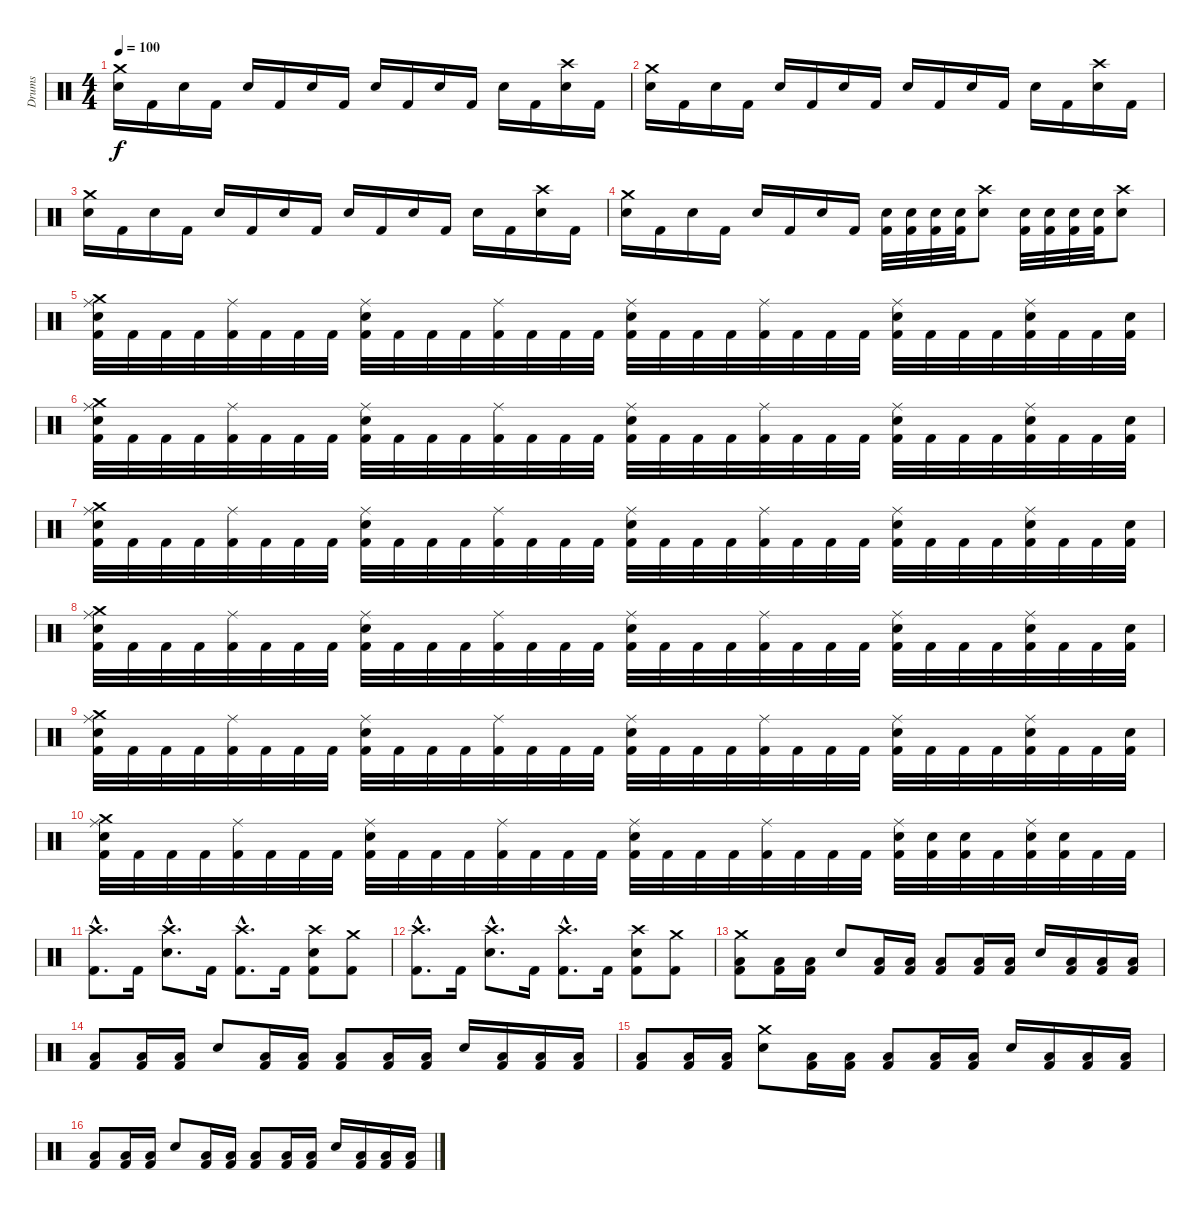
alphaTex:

\track ("Drums" "Drums") {instrument percussion}
\staff {score}
\articulation defaults
\ts (4 4)
\tempo 100
\clef neutral
\ks c
("Crash medium (hit)" "Electric Snare (hit)").16{dy f} "Kick (hit) 2".16 "Electric Snare (hit)".16 "Kick (hit) 2".16 "Electric Snare (hit)".16 "Kick (hit) 2".16 "Electric Snare (hit)".16 "Kick (hit) 2".16 "Electric Snare (hit)".16 "Kick (hit) 2".16 "Electric Snare (hit)".16 "Kick (hit) 2".16 "Electric Snare (hit)".16 "Kick (hit) 2".16 ("Crash high (hit)" "Electric Snare (hit)").16 "Kick (hit) 2".16 |
("Crash medium (hit)" "Electric Snare (hit)").16 "Kick (hit) 2".16 "Electric Snare (hit)".16 "Kick (hit) 2".16 "Electric Snare (hit)".16 "Kick (hit) 2".16 "Electric Snare (hit)".16 "Kick (hit) 2".16 "Electric Snare (hit)".16 "Kick (hit) 2".16 "Electric Snare (hit)".16 "Kick (hit) 2".16 "Electric Snare (hit)".16 "Kick (hit) 2".16 ("Crash high (hit)" "Electric Snare (hit)").16 "Kick (hit) 2".16 |
("Crash medium (hit)" "Electric Snare (hit)").16 "Kick (hit) 2".16 "Electric Snare (hit)".16 "Kick (hit) 2".16 "Electric Snare (hit)".16 "Kick (hit) 2".16 "Electric Snare (hit)".16 "Kick (hit) 2".16 "Electric Snare (hit)".16 "Kick (hit) 2".16 "Electric Snare (hit)".16 "Kick (hit) 2".16 "Electric Snare (hit)".16 "Kick (hit) 2".16 ("Crash high (hit)" "Electric Snare (hit)").16 "Kick (hit) 2".16 |
("Crash medium (hit)" "Electric Snare (hit)").16 "Kick (hit) 2".16 "Electric Snare (hit)".16 "Kick (hit) 2".16 "Electric Snare (hit)".16 "Kick (hit) 2".16 "Electric Snare (hit)".16 "Kick (hit) 2".16 ("Electric Snare (hit)" "Kick (hit) 2").32 ("Electric Snare (hit)" "Kick (hit) 2").32 ("Electric Snare (hit)" "Kick (hit) 2").32 ("Electric Snare (hit)" "Kick (hit) 2").32 ("Crash high (hit)" "Electric Snare (hit)").8 ("Electric Snare (hit)" "Kick (hit) 2").32 ("Electric Snare (hit)" "Kick (hit) 2").32 ("Electric Snare (hit)" "Kick (hit) 2").32 ("Electric Snare (hit)" "Kick (hit) 2").32 ("Crash high (hit)" "Electric Snare (hit)").8 |
("Crash medium (hit)" "Ride (middle)" "Electric Snare (hit)" "Kick (hit) 2").32 "Kick (hit) 2".32 "Kick (hit) 2".32 "Kick (hit) 2".32 ("Ride (middle)" "Kick (hit) 2").32 "Kick (hit) 2".32 "Kick (hit) 2".32 "Kick (hit) 2".32 ("Ride (middle)" "Electric Snare (hit)" "Kick (hit) 2").32 "Kick (hit) 2".32 "Kick (hit) 2".32 "Kick (hit) 2".32 ("Ride (middle)" "Kick (hit) 2").32 "Kick (hit) 2".32 "Kick (hit) 2".32 "Kick (hit) 2".32 ("Ride (middle)" "Electric Snare (hit)" "Kick (hit) 2").32 "Kick (hit) 2".32 "Kick (hit) 2".32 "Kick (hit) 2".32 ("Ride (middle)" "Kick (hit) 2").32 "Kick (hit) 2".32 "Kick (hit) 2".32 "Kick (hit) 2".32 ("Ride (middle)" "Electric Snare (hit)" "Kick (hit) 2").32 "Kick (hit) 2".32 "Kick (hit) 2".32 "Kick (hit) 2".32 ("Ride (middle)" "Electric Snare (hit)" "Kick (hit) 2").32 "Kick (hit) 2".32 "Kick (hit) 2".32 ("Electric Snare (hit)" "Kick (hit) 2").32 |
("Crash medium (hit)" "Ride (middle)" "Electric Snare (hit)" "Kick (hit) 2").32 "Kick (hit) 2".32 "Kick (hit) 2".32 "Kick (hit) 2".32 ("Ride (middle)" "Kick (hit) 2").32 "Kick (hit) 2".32 "Kick (hit) 2".32 "Kick (hit) 2".32 ("Ride (middle)" "Electric Snare (hit)" "Kick (hit) 2").32 "Kick (hit) 2".32 "Kick (hit) 2".32 "Kick (hit) 2".32 ("Ride (middle)" "Kick (hit) 2").32 "Kick (hit) 2".32 "Kick (hit) 2".32 "Kick (hit) 2".32 ("Ride (middle)" "Electric Snare (hit)" "Kick (hit) 2").32 "Kick (hit) 2".32 "Kick (hit) 2".32 "Kick (hit) 2".32 ("Ride (middle)" "Kick (hit) 2").32 "Kick (hit) 2".32 "Kick (hit) 2".32 "Kick (hit) 2".32 ("Ride (middle)" "Electric Snare (hit)" "Kick (hit) 2").32 "Kick (hit) 2".32 "Kick (hit) 2".32 "Kick (hit) 2".32 ("Ride (middle)" "Electric Snare (hit)" "Kick (hit) 2").32 "Kick (hit) 2".32 "Kick (hit) 2".32 ("Electric Snare (hit)" "Kick (hit) 2").32 |
("Crash medium (hit)" "Ride (middle)" "Electric Snare (hit)" "Kick (hit) 2").32 "Kick (hit) 2".32 "Kick (hit) 2".32 "Kick (hit) 2".32 ("Ride (middle)" "Kick (hit) 2").32 "Kick (hit) 2".32 "Kick (hit) 2".32 "Kick (hit) 2".32 ("Ride (middle)" "Electric Snare (hit)" "Kick (hit) 2").32 "Kick (hit) 2".32 "Kick (hit) 2".32 "Kick (hit) 2".32 ("Ride (middle)" "Kick (hit) 2").32 "Kick (hit) 2".32 "Kick (hit) 2".32 "Kick (hit) 2".32 ("Ride (middle)" "Electric Snare (hit)" "Kick (hit) 2").32 "Kick (hit) 2".32 "Kick (hit) 2".32 "Kick (hit) 2".32 ("Ride (middle)" "Kick (hit) 2").32 "Kick (hit) 2".32 "Kick (hit) 2".32 "Kick (hit) 2".32 ("Ride (middle)" "Electric Snare (hit)" "Kick (hit) 2").32 "Kick (hit) 2".32 "Kick (hit) 2".32 "Kick (hit) 2".32 ("Ride (middle)" "Electric Snare (hit)" "Kick (hit) 2").32 "Kick (hit) 2".32 "Kick (hit) 2".32 ("Electric Snare (hit)" "Kick (hit) 2").32 |
("Crash medium (hit)" "Ride (middle)" "Electric Snare (hit)" "Kick (hit) 2").32 "Kick (hit) 2".32 "Kick (hit) 2".32 "Kick (hit) 2".32 ("Ride (middle)" "Kick (hit) 2").32 "Kick (hit) 2".32 "Kick (hit) 2".32 "Kick (hit) 2".32 ("Ride (middle)" "Electric Snare (hit)" "Kick (hit) 2").32 "Kick (hit) 2".32 "Kick (hit) 2".32 "Kick (hit) 2".32 ("Ride (middle)" "Kick (hit) 2").32 "Kick (hit) 2".32 "Kick (hit) 2".32 "Kick (hit) 2".32 ("Ride (middle)" "Electric Snare (hit)" "Kick (hit) 2").32 "Kick (hit) 2".32 "Kick (hit) 2".32 "Kick (hit) 2".32 ("Ride (middle)" "Kick (hit) 2").32 "Kick (hit) 2".32 "Kick (hit) 2".32 "Kick (hit) 2".32 ("Ride (middle)" "Electric Snare (hit)" "Kick (hit) 2").32 "Kick (hit) 2".32 "Kick (hit) 2".32 "Kick (hit) 2".32 ("Ride (middle)" "Electric Snare (hit)" "Kick (hit) 2").32 "Kick (hit) 2".32 "Kick (hit) 2".32 ("Electric Snare (hit)" "Kick (hit) 2").32 |
("Crash medium (hit)" "Ride (middle)" "Electric Snare (hit)" "Kick (hit) 2").32 "Kick (hit) 2".32 "Kick (hit) 2".32 "Kick (hit) 2".32 ("Ride (middle)" "Kick (hit) 2").32 "Kick (hit) 2".32 "Kick (hit) 2".32 "Kick (hit) 2".32 ("Ride (middle)" "Electric Snare (hit)" "Kick (hit) 2").32 "Kick (hit) 2".32 "Kick (hit) 2".32 "Kick (hit) 2".32 ("Ride (middle)" "Kick (hit) 2").32 "Kick (hit) 2".32 "Kick (hit) 2".32 "Kick (hit) 2".32 ("Ride (middle)" "Electric Snare (hit)" "Kick (hit) 2").32 "Kick (hit) 2".32 "Kick (hit) 2".32 "Kick (hit) 2".32 ("Ride (middle)" "Kick (hit) 2").32 "Kick (hit) 2".32 "Kick (hit) 2".32 "Kick (hit) 2".32 ("Ride (middle)" "Electric Snare (hit)" "Kick (hit) 2").32 "Kick (hit) 2".32 "Kick (hit) 2".32 "Kick (hit) 2".32 ("Ride (middle)" "Electric Snare (hit)" "Kick (hit) 2").32 "Kick (hit) 2".32 "Kick (hit) 2".32 ("Electric Snare (hit)" "Kick (hit) 2").32 |
("Crash medium (hit)" "Ride (middle)" "Electric Snare (hit)" "Kick (hit) 2").32 "Kick (hit) 2".32 "Kick (hit) 2".32 "Kick (hit) 2".32 ("Ride (middle)" "Kick (hit) 2").32 "Kick (hit) 2".32 "Kick (hit) 2".32 "Kick (hit) 2".32 ("Ride (middle)" "Electric Snare (hit)" "Kick (hit) 2").32 "Kick (hit) 2".32 "Kick (hit) 2".32 "Kick (hit) 2".32 ("Ride (middle)" "Kick (hit) 2").32 "Kick (hit) 2".32 "Kick (hit) 2".32 "Kick (hit) 2".32 ("Ride (middle)" "Electric Snare (hit)" "Kick (hit) 2").32 "Kick (hit) 2".32 "Kick (hit) 2".32 "Kick (hit) 2".32 ("Ride (middle)" "Kick (hit) 2").32 "Kick (hit) 2".32 "Kick (hit) 2".32 "Kick (hit) 2".32 ("Ride (middle)" "Electric Snare (hit)" "Kick (hit) 2").32 ("Electric Snare (hit)" "Kick (hit) 2").32 ("Electric Snare (hit)" "Kick (hit) 2").32 "Kick (hit) 2".32 ("Ride (middle)" "Electric Snare (hit)" "Kick (hit) 2").32 ("Electric Snare (hit)" "Kick (hit) 2").32 "Kick (hit) 2".32 "Kick (hit) 2".32 |
("Crash high (hit)"{hac} "Kick (hit) 2"{hac}).8{d} "Kick (hit) 2".16 ("Crash high (hit)"{hac} "Electric Snare (hit)"{hac}).8{d} "Kick (hit) 2".16 ("Crash high (hit)"{hac} "Kick (hit) 2"{hac}).8{d} "Kick (hit) 2".16 ("Crash high (hit)" "Electric Snare (hit)" "Kick (hit) 2").8 ("Crash medium (hit)" "Kick (hit) 2").8 |
("Crash high (hit)"{hac} "Kick (hit) 2"{hac}).8{d} "Kick (hit) 2".16 ("Crash high (hit)"{hac} "Electric Snare (hit)"{hac}).8{d} "Kick (hit) 2".16 ("Crash high (hit)"{hac} "Kick (hit) 2"{hac}).8{d} "Kick (hit) 2".16 ("Crash high (hit)" "Electric Snare (hit)" "Kick (hit) 2").8 ("Crash medium (hit)" "Kick (hit) 2").8 |
("Crash medium (hit)" "Low Floor Tom (hit)" "Kick (hit) 2").8 ("Low Floor Tom (hit)" "Kick (hit) 2").16 ("Low Floor Tom (hit)" "Kick (hit) 2").16 "Electric Snare (hit)".8 ("Low Floor Tom (hit)" "Kick (hit) 2").16 ("Low Floor Tom (hit)" "Kick (hit) 2").16 ("Low Floor Tom (hit)" "Kick (hit) 2").8 ("Low Floor Tom (hit)" "Kick (hit) 2").16 ("Low Floor Tom (hit)" "Kick (hit) 2").16 "Electric Snare (hit)".16 ("Low Floor Tom (hit)" "Kick (hit) 2").16 ("Low Floor Tom (hit)" "Kick (hit) 2").16 ("Low Floor Tom (hit)" "Kick (hit) 2").16 |
("Low Floor Tom (hit)" "Kick (hit) 2").8 ("Low Floor Tom (hit)" "Kick (hit) 2").16 ("Low Floor Tom (hit)" "Kick (hit) 2").16 "Electric Snare (hit)".8 ("Low Floor Tom (hit)" "Kick (hit) 2").16 ("Low Floor Tom (hit)" "Kick (hit) 2").16 ("Low Floor Tom (hit)" "Kick (hit) 2").8 ("Low Floor Tom (hit)" "Kick (hit) 2").16 ("Low Floor Tom (hit)" "Kick (hit) 2").16 "Electric Snare (hit)".16 ("Low Floor Tom (hit)" "Kick (hit) 2").16 ("Low Floor Tom (hit)" "Kick (hit) 2").16 ("Low Floor Tom (hit)" "Kick (hit) 2").16 |
("Low Floor Tom (hit)" "Kick (hit) 2").8 ("Low Floor Tom (hit)" "Kick (hit) 2").16 ("Low Floor Tom (hit)" "Kick (hit) 2").16 ("Crash medium (hit)" "Electric Snare (hit)").8 ("Low Floor Tom (hit)" "Kick (hit) 2").16 ("Low Floor Tom (hit)" "Kick (hit) 2").16 ("Low Floor Tom (hit)" "Kick (hit) 2").8 ("Low Floor Tom (hit)" "Kick (hit) 2").16 ("Low Floor Tom (hit)" "Kick (hit) 2").16 "Electric Snare (hit)".16 ("Low Floor Tom (hit)" "Kick (hit) 2").16 ("Low Floor Tom (hit)" "Kick (hit) 2").16 ("Low Floor Tom (hit)" "Kick (hit) 2").16 |
("Low Floor Tom (hit)" "Kick (hit) 2").8 ("Low Floor Tom (hit)" "Kick (hit) 2").16 ("Low Floor Tom (hit)" "Kick (hit) 2").16 "Electric Snare (hit)".8 ("Low Floor Tom (hit)" "Kick (hit) 2").16 ("Low Floor Tom (hit)" "Kick (hit) 2").16 ("Low Floor Tom (hit)" "Kick (hit) 2").8 ("Low Floor Tom (hit)" "Kick (hit) 2").16 ("Low Floor Tom (hit)" "Kick (hit) 2").16 "Electric Snare (hit)".16 ("Low Floor Tom (hit)" "Kick (hit) 2").16 ("Low Floor Tom (hit)" "Kick (hit) 2").16 ("Low Floor Tom (hit)" "Kick (hit) 2").16
